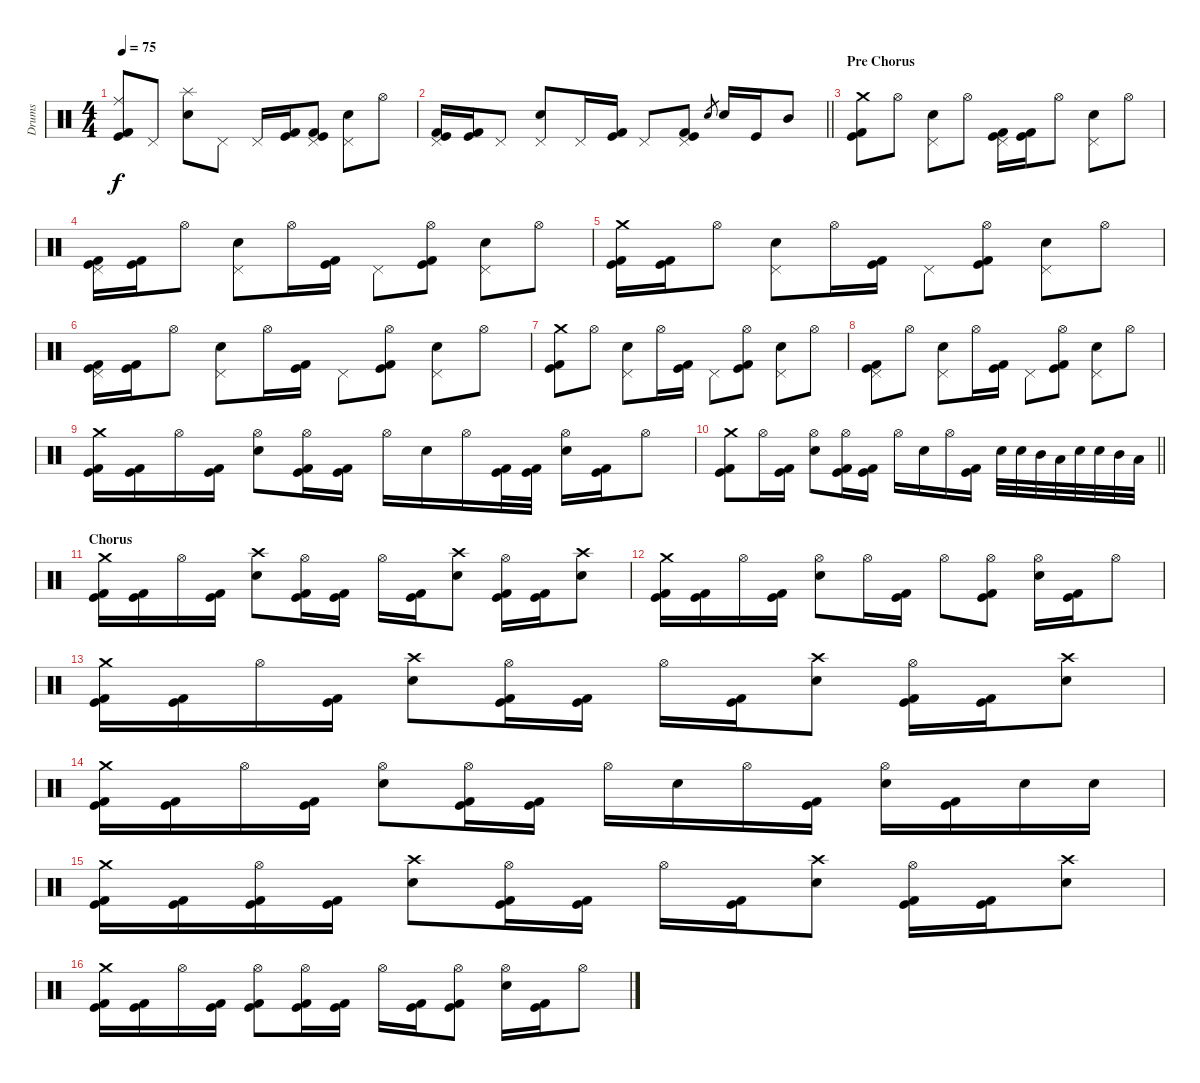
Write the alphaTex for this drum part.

\track ("Drums" "Drums") {instrument percussion}
\staff {score}
\articulation defaults
\ts (4 4)
\tempo 75
\clef neutral
\ks c
("Ride (middle)" "Kick (hit) 2" "Kick (hit)").8{dy f} "Pedal Hi-Hat (hit)".8 ("Splash (hit)" "Electric Snare (hit)").8 "Pedal Hi-Hat (hit)".8 "Pedal Hi-Hat (hit)".16 ("Kick (hit) 2" "Kick (hit)").16 ("Pedal Hi-Hat (hit)" "Kick (hit) 2" "Kick (hit)").8 ("Pedal Hi-Hat (hit)" "Electric Snare (hit)").8 "Hi-Hat (open)".8 |
\barLineRight lightlight
("Pedal Hi-Hat (hit)" "Kick (hit) 2" "Kick (hit)").16 ("Kick (hit) 2" "Kick (hit)").16 "Pedal Hi-Hat (hit)".8 ("Pedal Hi-Hat (hit)" "Electric Snare (hit)").8 "Pedal Hi-Hat (hit)".16 ("Kick (hit) 2" "Kick (hit)").16 "Pedal Hi-Hat (hit)".8 ("Pedal Hi-Hat (hit)" "Kick (hit) 2" "Kick (hit)").8 "Electric Snare (hit)".8{gr} "Electric Snare (hit)".16 "Kick (hit)".16 "Mid Tom (hit)".8 |
\section ("" "Pre Chorus")
("Crash medium (hit)" "Kick (hit) 2" "Kick (hit)").8 "Hi-Hat (open)".8 ("Pedal Hi-Hat (hit)" "Electric Snare (hit)").8 "Hi-Hat (open)".8 ("Pedal Hi-Hat (hit)" "Kick (hit) 2" "Kick (hit)").16 ("Kick (hit) 2" "Kick (hit)").16 "Hi-Hat (open)".8 ("Pedal Hi-Hat (hit)" "Electric Snare (hit)").8 "Hi-Hat (open)".8 |
("Pedal Hi-Hat (hit)" "Kick (hit) 2" "Kick (hit)").16 ("Kick (hit) 2" "Kick (hit)").16 "Hi-Hat (open)".8 ("Pedal Hi-Hat (hit)" "Electric Snare (hit)").8 "Hi-Hat (open)".16 ("Kick (hit) 2" "Kick (hit)").16 "Pedal Hi-Hat (hit)".8 ("Hi-Hat (open)" "Kick (hit) 2" "Kick (hit)").8 ("Pedal Hi-Hat (hit)" "Electric Snare (hit)").8 "Hi-Hat (open)".8 |
("Crash medium (hit)" "Kick (hit) 2" "Kick (hit)").16 ("Kick (hit) 2" "Kick (hit)").16 "Hi-Hat (open)".8 ("Pedal Hi-Hat (hit)" "Electric Snare (hit)").8 "Hi-Hat (open)".16 ("Kick (hit) 2" "Kick (hit)").16 "Pedal Hi-Hat (hit)".8 ("Hi-Hat (open)" "Kick (hit) 2" "Kick (hit)").8 ("Pedal Hi-Hat (hit)" "Electric Snare (hit)").8 "Hi-Hat (open)".8 |
("Pedal Hi-Hat (hit)" "Kick (hit) 2" "Kick (hit)").16 ("Kick (hit) 2" "Kick (hit)").16 "Hi-Hat (open)".8 ("Pedal Hi-Hat (hit)" "Electric Snare (hit)").8 "Hi-Hat (open)".16 ("Kick (hit) 2" "Kick (hit)").16 "Pedal Hi-Hat (hit)".8 ("Hi-Hat (open)" "Kick (hit) 2" "Kick (hit)").8 ("Pedal Hi-Hat (hit)" "Electric Snare (hit)").8 "Hi-Hat (open)".8 |
("Crash medium (hit)" "Kick (hit) 2" "Kick (hit)").8 "Hi-Hat (open)".8 ("Pedal Hi-Hat (hit)" "Electric Snare (hit)").8 "Hi-Hat (open)".16 ("Kick (hit) 2" "Kick (hit)").16 "Pedal Hi-Hat (hit)".8 ("Hi-Hat (open)" "Kick (hit) 2" "Kick (hit)").8 ("Pedal Hi-Hat (hit)" "Electric Snare (hit)").8 "Hi-Hat (open)".8 |
("Pedal Hi-Hat (hit)" "Kick (hit) 2" "Kick (hit)").8 "Hi-Hat (open)".8 ("Pedal Hi-Hat (hit)" "Electric Snare (hit)").8 "Hi-Hat (open)".16 ("Kick (hit) 2" "Kick (hit)").16 "Pedal Hi-Hat (hit)".8 ("Hi-Hat (open)" "Kick (hit) 2" "Kick (hit)").8 ("Pedal Hi-Hat (hit)" "Electric Snare (hit)").8 "Hi-Hat (open)".8 |
("Crash medium (hit)" "Kick (hit) 2" "Kick (hit)").16 ("Kick (hit) 2" "Kick (hit)").16 "Hi-Hat (open)".16 ("Kick (hit) 2" "Kick (hit)").16 ("Hi-Hat (open)" "Electric Snare (hit)").8 ("Hi-Hat (open)" "Kick (hit) 2" "Kick (hit)").16 ("Kick (hit) 2" "Kick (hit)").16 "Hi-Hat (open)".16 "Electric Snare (hit)".16 "Hi-Hat (open)".16 ("Kick (hit) 2" "Kick (hit)").32 ("Kick (hit) 2" "Kick (hit)").32 ("Hi-Hat (open)" "Electric Snare (hit)").16 ("Kick (hit) 2" "Kick (hit)").16 "Hi-Hat (open)".8 |
\barLineRight lightlight
("Crash medium (hit)" "Kick (hit) 2" "Kick (hit)").8 "Hi-Hat (open)".16 ("Kick (hit) 2" "Kick (hit)").16 ("Hi-Hat (open)" "Electric Snare (hit)").8 ("Hi-Hat (open)" "Kick (hit) 2" "Kick (hit)").16 ("Kick (hit) 2" "Kick (hit)").16 "Hi-Hat (open)".16 "Electric Snare (hit)".16 "Hi-Hat (open)".16 ("Kick (hit) 2" "Kick (hit)").16 "Electric Snare (hit)".32 "Electric Snare (hit)".32 "Mid Tom (hit)".32 "Low Tom (hit)".32 "Electric Snare (hit)".32 "Electric Snare (hit)".32 "Mid Tom (hit)".32 "Low Tom (hit)".32 |
\section ("" "Chorus")
("Crash medium (hit)" "Kick (hit) 2" "Kick (hit)").16 ("Kick (hit) 2" "Kick (hit)").16 "Hi-Hat (open)".16 ("Kick (hit) 2" "Kick (hit)").16 ("Crash high (hit)" "Electric Snare (hit)").8 ("Hi-Hat (open)" "Kick (hit) 2" "Kick (hit)").16 ("Kick (hit) 2" "Kick (hit)").16 "Hi-Hat (open)".16 ("Kick (hit) 2" "Kick (hit)").16 ("Crash high (hit)" "Electric Snare (hit)").8 ("Hi-Hat (open)" "Kick (hit) 2" "Kick (hit)").16 ("Kick (hit) 2" "Kick (hit)").16 ("Crash high (hit)" "Electric Snare (hit)").8 |
("Crash medium (hit)" "Kick (hit) 2" "Kick (hit)").16 ("Kick (hit) 2" "Kick (hit)").16 "Hi-Hat (open)".16 ("Kick (hit) 2" "Kick (hit)").16 ("Hi-Hat (open)" "Electric Snare (hit)").8 "Hi-Hat (open)".16 ("Kick (hit) 2" "Kick (hit)").16 "Hi-Hat (open)".8 ("Hi-Hat (open)" "Kick (hit) 2" "Kick (hit)").8 ("Hi-Hat (open)" "Electric Snare (hit)").16 ("Kick (hit) 2" "Kick (hit)").16 "Hi-Hat (open)".8 |
("Crash medium (hit)" "Kick (hit) 2" "Kick (hit)").16 ("Kick (hit) 2" "Kick (hit)").16 "Hi-Hat (open)".16 ("Kick (hit) 2" "Kick (hit)").16 ("Crash high (hit)" "Electric Snare (hit)").8 ("Hi-Hat (open)" "Kick (hit) 2" "Kick (hit)").16 ("Kick (hit) 2" "Kick (hit)").16 "Hi-Hat (open)".16 ("Kick (hit) 2" "Kick (hit)").16 ("Crash high (hit)" "Electric Snare (hit)").8 ("Hi-Hat (open)" "Kick (hit) 2" "Kick (hit)").16 ("Kick (hit) 2" "Kick (hit)").16 ("Crash high (hit)" "Electric Snare (hit)").8 |
("Crash medium (hit)" "Kick (hit) 2" "Kick (hit)").16 ("Kick (hit) 2" "Kick (hit)").16 "Hi-Hat (open)".16 ("Kick (hit) 2" "Kick (hit)").16 ("Hi-Hat (open)" "Electric Snare (hit)").8 ("Hi-Hat (open)" "Kick (hit) 2" "Kick (hit)").16 ("Kick (hit) 2" "Kick (hit)").16 "Hi-Hat (open)".16 "Electric Snare (hit)".16 "Hi-Hat (open)".16 ("Kick (hit) 2" "Kick (hit)").16 ("Hi-Hat (open)" "Electric Snare (hit)").16 ("Kick (hit) 2" "Kick (hit)").16 "Electric Snare (hit)".16 "Electric Snare (hit)".16 |
("Crash medium (hit)" "Kick (hit) 2" "Kick (hit)").16 ("Kick (hit) 2" "Kick (hit)").16 ("Hi-Hat (open)" "Kick (hit) 2" "Kick (hit)").16 ("Kick (hit) 2" "Kick (hit)").16 ("Crash high (hit)" "Electric Snare (hit)").8 ("Hi-Hat (open)" "Kick (hit) 2" "Kick (hit)").16 ("Kick (hit) 2" "Kick (hit)").16 "Hi-Hat (open)".16 ("Kick (hit) 2" "Kick (hit)").16 ("Crash high (hit)" "Electric Snare (hit)").8 ("Hi-Hat (open)" "Kick (hit) 2" "Kick (hit)").16 ("Kick (hit) 2" "Kick (hit)").16 ("Crash high (hit)" "Electric Snare (hit)").8 |
("Crash medium (hit)" "Kick (hit) 2" "Kick (hit)").16 ("Kick (hit) 2" "Kick (hit)").16 "Hi-Hat (open)".16 ("Kick (hit) 2" "Kick (hit)").16 ("Hi-Hat (open)" "Kick (hit) 2" "Kick (hit)").8 ("Hi-Hat (open)" "Kick (hit) 2" "Kick (hit)").16 ("Kick (hit) 2" "Kick (hit)").16 "Hi-Hat (open)".16 ("Kick (hit) 2" "Kick (hit)").16 ("Hi-Hat (open)" "Kick (hit) 2" "Kick (hit)").8 ("Hi-Hat (open)" "Electric Snare (hit)").16 ("Kick (hit) 2" "Kick (hit)").16 "Hi-Hat (open)".8
